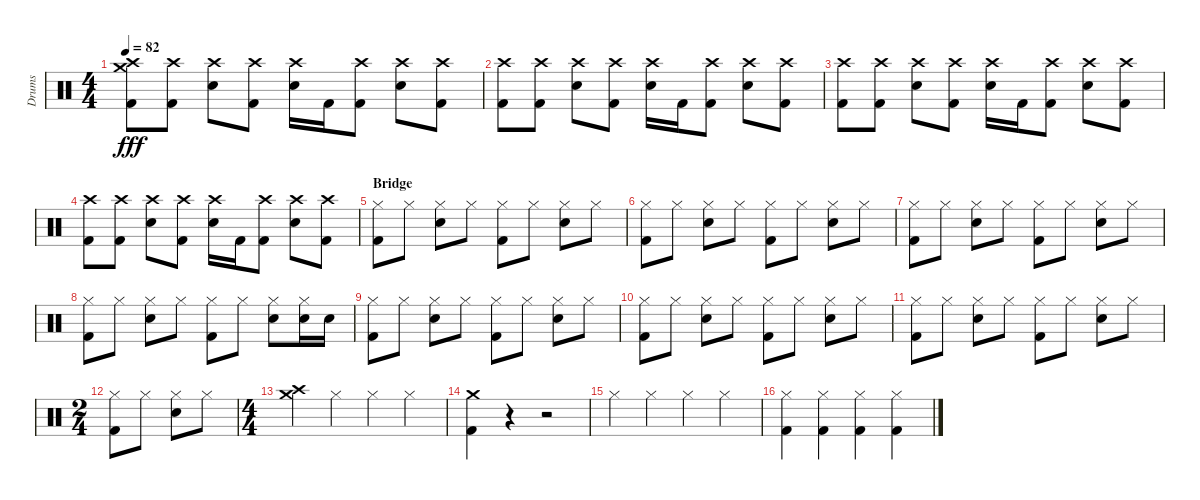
\track ("Drums" "Drums") {instrument percussion}
\staff {score}
\articulation defaults
\ts (4 4)
\tempo 82
\clef neutral
\ks c
("Crash high (hit)" "Crash medium (hit)" "Kick (hit) 2").8{dy fff} ("Crash high (hit)" "Kick (hit) 2").8 ("Crash high (hit)" "Electric Snare (hit)").8 ("Crash high (hit)" "Kick (hit) 2").8 ("Crash high (hit)" "Electric Snare (hit)").16 "Kick (hit) 2".16 ("Crash high (hit)" "Kick (hit) 2").8 ("Crash high (hit)" "Electric Snare (hit)").8 ("Crash high (hit)" "Kick (hit) 2").8 |
("Crash high (hit)" "Kick (hit) 2").8 ("Crash high (hit)" "Kick (hit) 2").8 ("Crash high (hit)" "Electric Snare (hit)").8 ("Crash high (hit)" "Kick (hit) 2").8 ("Crash high (hit)" "Electric Snare (hit)").16 "Kick (hit) 2".16 ("Crash high (hit)" "Kick (hit) 2").8 ("Crash high (hit)" "Electric Snare (hit)").8 ("Crash high (hit)" "Kick (hit) 2").8 |
("Crash high (hit)" "Kick (hit) 2").8 ("Crash high (hit)" "Kick (hit) 2").8 ("Crash high (hit)" "Electric Snare (hit)").8 ("Crash high (hit)" "Kick (hit) 2").8 ("Crash high (hit)" "Electric Snare (hit)").16 "Kick (hit) 2".16 ("Crash high (hit)" "Kick (hit) 2").8 ("Crash high (hit)" "Electric Snare (hit)").8 ("Crash high (hit)" "Kick (hit) 2").8 |
("Crash high (hit)" "Kick (hit) 2").8 ("Crash high (hit)" "Kick (hit) 2").8 ("Crash high (hit)" "Electric Snare (hit)").8 ("Crash high (hit)" "Kick (hit) 2").8 ("Crash high (hit)" "Electric Snare (hit)").16 "Kick (hit) 2".16 ("Crash high (hit)" "Kick (hit) 2").8 ("Crash high (hit)" "Electric Snare (hit)").8 ("Crash high (hit)" "Kick (hit) 2").8 |
\section ("" "Bridge")
("Hi-Hat (closed)" "Kick (hit) 2").8 "Hi-Hat (closed)".8 ("Hi-Hat (closed)" "Electric Snare (hit)").8 "Hi-Hat (closed)".8 ("Hi-Hat (closed)" "Kick (hit) 2").8 "Hi-Hat (closed)".8 ("Hi-Hat (closed)" "Electric Snare (hit)").8 "Hi-Hat (closed)".8 |
("Hi-Hat (closed)" "Kick (hit) 2").8 "Hi-Hat (closed)".8 ("Hi-Hat (closed)" "Electric Snare (hit)").8 "Hi-Hat (closed)".8 ("Hi-Hat (closed)" "Kick (hit) 2").8 "Hi-Hat (closed)".8 ("Hi-Hat (closed)" "Electric Snare (hit)").8 "Hi-Hat (closed)".8 |
("Hi-Hat (closed)" "Kick (hit) 2").8 "Hi-Hat (closed)".8 ("Hi-Hat (closed)" "Electric Snare (hit)").8 "Hi-Hat (closed)".8 ("Hi-Hat (closed)" "Kick (hit) 2").8 "Hi-Hat (closed)".8 ("Hi-Hat (closed)" "Electric Snare (hit)").8 "Hi-Hat (closed)".8 |
("Hi-Hat (closed)" "Kick (hit) 2").8 "Hi-Hat (closed)".8 ("Hi-Hat (closed)" "Electric Snare (hit)").8 "Hi-Hat (closed)".8 ("Hi-Hat (closed)" "Kick (hit) 2").8 "Hi-Hat (closed)".8 ("Hi-Hat (closed)" "Electric Snare (hit)").8 ("Hi-Hat (closed)" "Electric Snare (hit)").16 "Electric Snare (hit)".16 |
("Hi-Hat (closed)" "Kick (hit) 2").8 "Hi-Hat (closed)".8 ("Hi-Hat (closed)" "Electric Snare (hit)").8 "Hi-Hat (closed)".8 ("Hi-Hat (closed)" "Kick (hit) 2").8 "Hi-Hat (closed)".8 ("Hi-Hat (closed)" "Electric Snare (hit)").8 "Hi-Hat (closed)".8 |
("Hi-Hat (closed)" "Kick (hit) 2").8 "Hi-Hat (closed)".8 ("Hi-Hat (closed)" "Electric Snare (hit)").8 "Hi-Hat (closed)".8 ("Hi-Hat (closed)" "Kick (hit) 2").8 "Hi-Hat (closed)".8 ("Hi-Hat (closed)" "Electric Snare (hit)").8 "Hi-Hat (closed)".8 |
("Hi-Hat (closed)" "Kick (hit) 2").8 "Hi-Hat (closed)".8 ("Hi-Hat (closed)" "Electric Snare (hit)").8 "Hi-Hat (closed)".8 ("Hi-Hat (closed)" "Kick (hit) 2").8 "Hi-Hat (closed)".8 ("Hi-Hat (closed)" "Electric Snare (hit)").8 "Hi-Hat (closed)".8 |
\ts (2 4)
("Hi-Hat (closed)" "Kick (hit) 2").8 "Hi-Hat (closed)".8 ("Hi-Hat (closed)" "Electric Snare (hit)").8 "Hi-Hat (closed)".8 |
\ts (4 4)
("Crash high (hit)" "Crash medium (hit)").4 "Hi-Hat (closed)".4 "Hi-Hat (closed)".4 "Hi-Hat (closed)".4 |
("Crash medium (hit)" "Kick (hit) 2").4 r.4 r.2 |
"Hi-Hat (closed)".4 "Hi-Hat (closed)".4 "Hi-Hat (closed)".4 "Hi-Hat (closed)".4 |
("Hi-Hat (closed)" "Kick (hit) 2").4 ("Hi-Hat (closed)" "Kick (hit) 2").4 ("Hi-Hat (closed)" "Kick (hit) 2").4 ("Hi-Hat (closed)" "Kick (hit) 2").4
